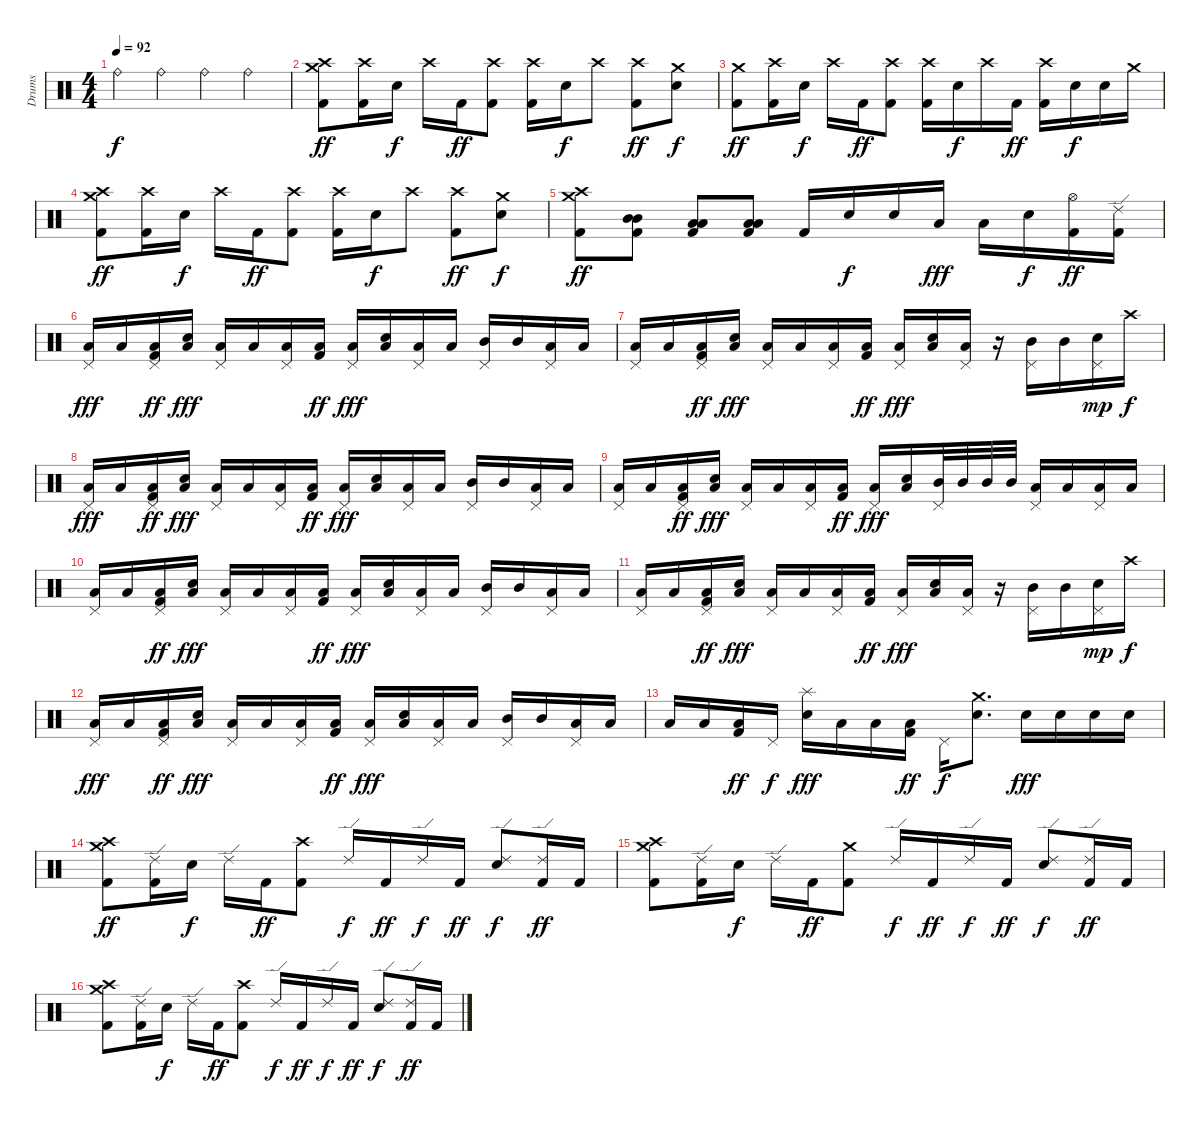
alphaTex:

\track ("Drums" "Drums") {instrument percussion}
\staff {score}
\articulation defaults
\ts (4 4)
\tempo 92
\clef neutral
\ks c "Ride (bell)".4{dy f} "Ride (bell)".4 "Ride (bell)".4 "Ride (bell)".4
|
("Crash medium (hit)" "Crash high (hit)" "Kick (hit) 2").8{dy ff} ("Crash high (hit)" "Kick (hit) 2").16 "Electric Snare (hit)".16{dy f} "Crash high (hit)".16 "Kick (hit) 2".16{dy ff} ("Crash high (hit)" "Kick (hit) 2").8 ("Crash high (hit)" "Kick (hit) 2").16 "Electric Snare (hit)".16{dy f} "Crash high (hit)".8 ("Crash high (hit)" "Kick (hit) 2").8{dy ff} ("Crash medium (hit)" "Electric Snare (hit)").8{dy f} |
("Crash medium (hit)" "Kick (hit) 2").8{dy ff} ("Crash high (hit)" "Kick (hit) 2").16 "Electric Snare (hit)".16{dy f} "Crash high (hit)".16 "Kick (hit) 2".16{dy ff} ("Crash high (hit)" "Kick (hit) 2").8 ("Crash high (hit)" "Kick (hit) 2").16 "Electric Snare (hit)".16{dy f} "Crash high (hit)".16 "Kick (hit) 2".16{dy ff} ("Crash high (hit)" "Kick (hit) 2").16 "Electric Snare (hit)".16{dy f} "Electric Snare (hit)".16 "Crash medium (hit)".16 |
("Crash medium (hit)" "Crash high (hit)" "Kick (hit) 2").8{dy ff} ("Crash high (hit)" "Kick (hit) 2").16 "Electric Snare (hit)".16{dy f} "Crash high (hit)".16 "Kick (hit) 2".16{dy ff} ("Crash high (hit)" "Kick (hit) 2").8 ("Crash high (hit)" "Kick (hit) 2").16 "Electric Snare (hit)".16{dy f} "Crash high (hit)".8 ("Crash high (hit)" "Kick (hit) 2").8{dy ff} ("Crash medium (hit)" "Electric Snare (hit)").8{dy f} |
("Crash medium (hit)" "Crash high (hit)" "Kick (hit) 2").8{dy ff} ("Mid Tom (hit)" "Mid Tom (hit)" "Kick (hit) 2").8 ("Low Tom (hit)" "Low Tom (hit)" "Kick (hit) 2").8 ("Low Floor Tom (hit)" "Low Floor Tom (hit)" "Kick (hit) 2").8 "Kick (hit) 2".16 "Electric Snare (hit)".16{dy f} "Electric Snare (hit)".16 "Low Tom (hit)".16{dy fff} "Low Tom (hit)".16 "Electric Snare (hit)".16{dy f} ("Hi-Hat (open)" "Kick (hit) 2").16{dy ff} ("Ride (edge) 2" "Kick (hit) 2").16 |
("Pedal Hi-Hat (hit)" "Low Floor Tom (hit)").16{dy fff} "Low Floor Tom (hit)".16 ("Pedal Hi-Hat (hit)" "Low Floor Tom (hit)" "Kick (hit) 2").16{dy ff} ("Electric Snare (hit)" "Low Floor Tom (hit)").16{dy fff} ("Pedal Hi-Hat (hit)" "Low Floor Tom (hit)").16 "Low Floor Tom (hit)".16 ("Pedal Hi-Hat (hit)" "Low Floor Tom (hit)").16 ("Low Floor Tom (hit)" "Kick (hit) 2").16{dy ff} ("Pedal Hi-Hat (hit)" "Low Floor Tom (hit)").16{dy fff} ("Electric Snare (hit)" "Low Floor Tom (hit)").16 ("Pedal Hi-Hat (hit)" "Low Floor Tom (hit)").16 "Low Floor Tom (hit)".16 ("Pedal Hi-Hat (hit)" "Mid Tom (hit)").16 "Mid Tom (hit)".16 ("Pedal Hi-Hat (hit)" "Low Tom (hit)").16 "Low Tom (hit)".16 |
("Pedal Hi-Hat (hit)" "Low Floor Tom (hit)").16 "Low Floor Tom (hit)".16 ("Pedal Hi-Hat (hit)" "Low Floor Tom (hit)" "Kick (hit) 2").16{dy ff} ("Electric Snare (hit)" "Low Floor Tom (hit)").16{dy fff} ("Pedal Hi-Hat (hit)" "Low Floor Tom (hit)").16 "Low Floor Tom (hit)".16 ("Pedal Hi-Hat (hit)" "Low Floor Tom (hit)").16 ("Low Floor Tom (hit)" "Kick (hit) 2").16{dy ff} ("Pedal Hi-Hat (hit)" "Low Floor Tom (hit)").16{dy fff} ("Electric Snare (hit)" "Low Floor Tom (hit)").16 ("Pedal Hi-Hat (hit)" "Low Floor Tom (hit)").16 r.16 ("Pedal Hi-Hat (hit)" "Mid Tom (hit)").16 "Mid Tom (hit)".16 ("Pedal Hi-Hat (hit)" "Electric Snare (hit)").16{dy mp} "Crash high (hit)".16{dy f} |
("Pedal Hi-Hat (hit)" "Low Floor Tom (hit)").16{dy fff} "Low Floor Tom (hit)".16 ("Pedal Hi-Hat (hit)" "Low Floor Tom (hit)" "Kick (hit) 2").16{dy ff} ("Electric Snare (hit)" "Low Floor Tom (hit)").16{dy fff} ("Pedal Hi-Hat (hit)" "Low Floor Tom (hit)").16 "Low Floor Tom (hit)".16 ("Pedal Hi-Hat (hit)" "Low Floor Tom (hit)").16 ("Low Floor Tom (hit)" "Kick (hit) 2").16{dy ff} ("Pedal Hi-Hat (hit)" "Low Floor Tom (hit)").16{dy fff} ("Electric Snare (hit)" "Low Floor Tom (hit)").16 ("Pedal Hi-Hat (hit)" "Low Floor Tom (hit)").16 "Low Floor Tom (hit)".16 ("Pedal Hi-Hat (hit)" "Mid Tom (hit)").16 "Mid Tom (hit)".16 ("Pedal Hi-Hat (hit)" "Low Tom (hit)").16 "Low Tom (hit)".16 |
("Pedal Hi-Hat (hit)" "Low Floor Tom (hit)").16 "Low Floor Tom (hit)".16 ("Pedal Hi-Hat (hit)" "Low Floor Tom (hit)" "Kick (hit) 2").16{dy ff} ("Electric Snare (hit)" "Low Floor Tom (hit)").16{dy fff} ("Pedal Hi-Hat (hit)" "Low Floor Tom (hit)").16 "Low Floor Tom (hit)".16 ("Pedal Hi-Hat (hit)" "Low Floor Tom (hit)").16 ("Low Floor Tom (hit)" "Kick (hit) 2").16{dy ff} ("Pedal Hi-Hat (hit)" "Low Floor Tom (hit)").16{dy fff} ("Electric Snare (hit)" "Low Floor Tom (hit)").16 ("Pedal Hi-Hat (hit)" "Mid Tom (hit)").32 "Mid Tom (hit)".32 "Mid Tom (hit)".32 "Mid Tom (hit)".32 ("Pedal Hi-Hat (hit)" "Low Tom (hit)").16 "Low Tom (hit)".16 ("Pedal Hi-Hat (hit)" "Low Tom (hit)").16 "Low Tom (hit)".16 |
("Pedal Hi-Hat (hit)" "Low Floor Tom (hit)").16 "Low Floor Tom (hit)".16 ("Pedal Hi-Hat (hit)" "Low Floor Tom (hit)" "Kick (hit) 2").16{dy ff} ("Electric Snare (hit)" "Low Floor Tom (hit)").16{dy fff} ("Pedal Hi-Hat (hit)" "Low Floor Tom (hit)").16 "Low Floor Tom (hit)".16 ("Pedal Hi-Hat (hit)" "Low Floor Tom (hit)").16 ("Low Floor Tom (hit)" "Kick (hit) 2").16{dy ff} ("Pedal Hi-Hat (hit)" "Low Floor Tom (hit)").16{dy fff} ("Electric Snare (hit)" "Low Floor Tom (hit)").16 ("Pedal Hi-Hat (hit)" "Low Floor Tom (hit)").16 "Low Floor Tom (hit)".16 ("Pedal Hi-Hat (hit)" "Mid Tom (hit)").16 "Mid Tom (hit)".16 ("Pedal Hi-Hat (hit)" "Low Tom (hit)").16 "Low Tom (hit)".16 |
("Pedal Hi-Hat (hit)" "Low Floor Tom (hit)").16 "Low Floor Tom (hit)".16 ("Pedal Hi-Hat (hit)" "Low Floor Tom (hit)" "Kick (hit) 2").16{dy ff} ("Electric Snare (hit)" "Low Floor Tom (hit)").16{dy fff} ("Pedal Hi-Hat (hit)" "Low Floor Tom (hit)").16 "Low Floor Tom (hit)".16 ("Pedal Hi-Hat (hit)" "Low Floor Tom (hit)").16 ("Low Floor Tom (hit)" "Kick (hit) 2").16{dy ff} ("Pedal Hi-Hat (hit)" "Low Floor Tom (hit)").16{dy fff} ("Electric Snare (hit)" "Low Floor Tom (hit)").16 ("Pedal Hi-Hat (hit)" "Low Floor Tom (hit)").16 r.16 ("Pedal Hi-Hat (hit)" "Mid Tom (hit)").16 "Mid Tom (hit)".16 ("Pedal Hi-Hat (hit)" "Electric Snare (hit)").16{dy mp} "Crash high (hit)".16{dy f} |
("Pedal Hi-Hat (hit)" "Low Floor Tom (hit)").16{dy fff} "Low Floor Tom (hit)".16 ("Pedal Hi-Hat (hit)" "Low Floor Tom (hit)" "Kick (hit) 2").16{dy ff} ("Electric Snare (hit)" "Low Floor Tom (hit)").16{dy fff} ("Pedal Hi-Hat (hit)" "Low Floor Tom (hit)").16 "Low Floor Tom (hit)".16 ("Pedal Hi-Hat (hit)" "Low Floor Tom (hit)").16 ("Low Floor Tom (hit)" "Kick (hit) 2").16{dy ff} ("Pedal Hi-Hat (hit)" "Low Floor Tom (hit)").16{dy fff} ("Electric Snare (hit)" "Low Floor Tom (hit)").16 ("Pedal Hi-Hat (hit)" "Low Floor Tom (hit)").16 "Low Floor Tom (hit)".16 ("Pedal Hi-Hat (hit)" "Mid Tom (hit)").16 "Mid Tom (hit)".16 ("Pedal Hi-Hat (hit)" "Low Tom (hit)").16 "Low Tom (hit)".16 |
"Low Floor Tom (hit)".16 "Low Floor Tom (hit)".16 ("Low Floor Tom (hit)" "Kick (hit) 2").16{dy ff} "Pedal Hi-Hat (hit)".16{dy f} ("Splash (hit)" "Electric Snare (hit)").16{dy fff} "Low Floor Tom (hit)".16 "Low Floor Tom (hit)".16 ("Low Floor Tom (hit)" "Kick (hit) 2").16{dy ff} "Pedal Hi-Hat (hit)".16{dy f} ("Crash medium (hit)" "Electric Snare (hit)").8{d} "Electric Snare (hit)".16{dy fff} "Electric Snare (hit)".16 "Electric Snare (hit)".16 "Electric Snare (hit)".16 |
("Crash medium (hit)" "Crash high (hit)" "Kick (hit) 2").8{dy ff} ("Ride (edge) 2" "Kick (hit) 2").16 "Electric Snare (hit)".16{dy f} "Ride (edge) 2".16 "Kick (hit) 2".16{dy ff} ("Crash high (hit)" "Kick (hit) 2").8 "Ride (edge) 2".16{dy f} "Kick (hit) 2".16{dy ff} "Ride (edge) 2".16{dy f} "Kick (hit) 2".16{dy ff} ("Ride (edge) 2" "Electric Snare (hit)").8{dy f} ("Ride (edge) 2" "Kick (hit) 2").16{dy ff} "Kick (hit) 2".16 |
("Crash medium (hit)" "Crash high (hit)" "Kick (hit) 2").8 ("Ride (edge) 2" "Kick (hit) 2").16 "Electric Snare (hit)".16{dy f} "Ride (edge) 2".16 "Kick (hit) 2".16{dy ff} ("Crash medium (hit)" "Kick (hit) 2").8 "Ride (edge) 2".16{dy f} "Kick (hit) 2".16{dy ff} "Ride (edge) 2".16{dy f} "Kick (hit) 2".16{dy ff} ("Ride (edge) 2" "Electric Snare (hit)").8{dy f} ("Ride (edge) 2" "Kick (hit) 2").16{dy ff} "Kick (hit) 2".16 |
("Crash medium (hit)" "Crash high (hit)" "Kick (hit) 2").8 ("Ride (edge) 2" "Kick (hit) 2").16 "Electric Snare (hit)".16{dy f} "Ride (edge) 2".16 "Kick (hit) 2".16{dy ff} ("Crash high (hit)" "Kick (hit) 2").8 "Ride (edge) 2".16{dy f} "Kick (hit) 2".16{dy ff} "Ride (edge) 2".16{dy f} "Kick (hit) 2".16{dy ff} ("Ride (edge) 2" "Electric Snare (hit)").8{dy f} ("Ride (edge) 2" "Kick (hit) 2").16{dy ff} "Kick (hit) 2".16
